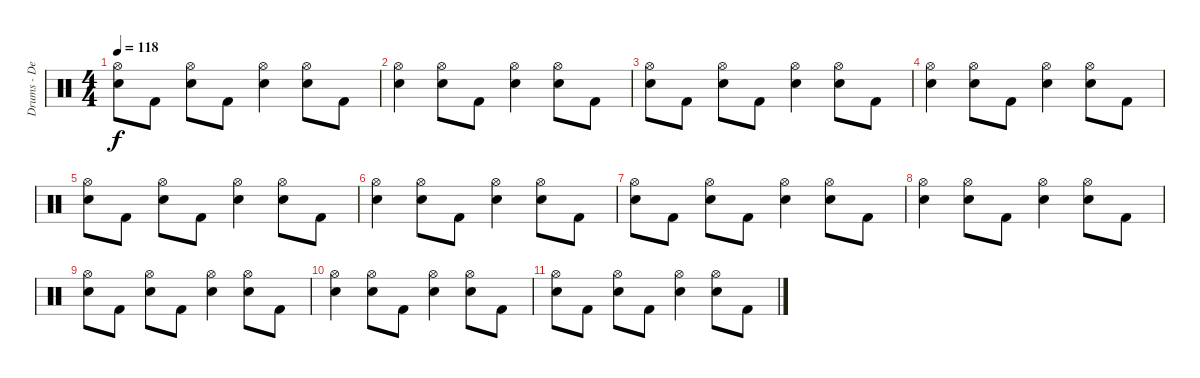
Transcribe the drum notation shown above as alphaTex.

\track ("Drums - Densmore" "Drums - De") {instrument percussion}
\staff {score}
\articulation defaults
\ts (4 4)
\tempo 118
\clef neutral
\ks c
("Hi-Hat (open)" "Electric Snare (hit)").8{dy f} "Kick (hit) 2".8 ("Hi-Hat (open)" "Electric Snare (hit)").8 "Kick (hit) 2".8 ("Hi-Hat (open)" "Electric Snare (hit)").4 ("Hi-Hat (open)" "Electric Snare (hit)").8 "Kick (hit) 2".8 |
("Hi-Hat (open)" "Electric Snare (hit)").4 ("Hi-Hat (open)" "Electric Snare (hit)").8 "Kick (hit) 2".8 ("Hi-Hat (open)" "Electric Snare (hit)").4 ("Hi-Hat (open)" "Electric Snare (hit)").8 "Kick (hit) 2".8 |
("Hi-Hat (open)" "Electric Snare (hit)").8 "Kick (hit) 2".8 ("Hi-Hat (open)" "Electric Snare (hit)").8 "Kick (hit) 2".8 ("Hi-Hat (open)" "Electric Snare (hit)").4 ("Hi-Hat (open)" "Electric Snare (hit)").8 "Kick (hit) 2".8 |
("Hi-Hat (open)" "Electric Snare (hit)").4 ("Hi-Hat (open)" "Electric Snare (hit)").8 "Kick (hit) 2".8 ("Hi-Hat (open)" "Electric Snare (hit)").4 ("Hi-Hat (open)" "Electric Snare (hit)").8 "Kick (hit) 2".8 |
("Hi-Hat (open)" "Electric Snare (hit)").8 "Kick (hit) 2".8 ("Hi-Hat (open)" "Electric Snare (hit)").8 "Kick (hit) 2".8 ("Hi-Hat (open)" "Electric Snare (hit)").4 ("Hi-Hat (open)" "Electric Snare (hit)").8 "Kick (hit) 2".8 |
("Hi-Hat (open)" "Electric Snare (hit)").4 ("Hi-Hat (open)" "Electric Snare (hit)").8 "Kick (hit) 2".8 ("Hi-Hat (open)" "Electric Snare (hit)").4 ("Hi-Hat (open)" "Electric Snare (hit)").8 "Kick (hit) 2".8 |
("Hi-Hat (open)" "Electric Snare (hit)").8 "Kick (hit) 2".8 ("Hi-Hat (open)" "Electric Snare (hit)").8 "Kick (hit) 2".8 ("Hi-Hat (open)" "Electric Snare (hit)").4 ("Hi-Hat (open)" "Electric Snare (hit)").8 "Kick (hit) 2".8 |
("Hi-Hat (open)" "Electric Snare (hit)").4 ("Hi-Hat (open)" "Electric Snare (hit)").8 "Kick (hit) 2".8 ("Hi-Hat (open)" "Electric Snare (hit)").4 ("Hi-Hat (open)" "Electric Snare (hit)").8 "Kick (hit) 2".8 |
("Hi-Hat (open)" "Electric Snare (hit)").8 "Kick (hit) 2".8 ("Hi-Hat (open)" "Electric Snare (hit)").8 "Kick (hit) 2".8 ("Hi-Hat (open)" "Electric Snare (hit)").4{volume 12} ("Hi-Hat (open)" "Electric Snare (hit)").8{volume 11} "Kick (hit) 2".8 |
("Hi-Hat (open)" "Electric Snare (hit)").4{volume 9} ("Hi-Hat (open)" "Electric Snare (hit)").8{volume 8} "Kick (hit) 2".8 ("Hi-Hat (open)" "Electric Snare (hit)").4{volume 6} ("Hi-Hat (open)" "Electric Snare (hit)").8{volume 5} "Kick (hit) 2".8 |
("Hi-Hat (open)" "Electric Snare (hit)").8{volume 3} "Kick (hit) 2".8 ("Hi-Hat (open)" "Electric Snare (hit)").8{volume 2} "Kick (hit) 2".8 ("Hi-Hat (open)" "Electric Snare (hit)").4{volume 0} ("Hi-Hat (open)" "Electric Snare (hit)").8 "Kick (hit) 2".8
